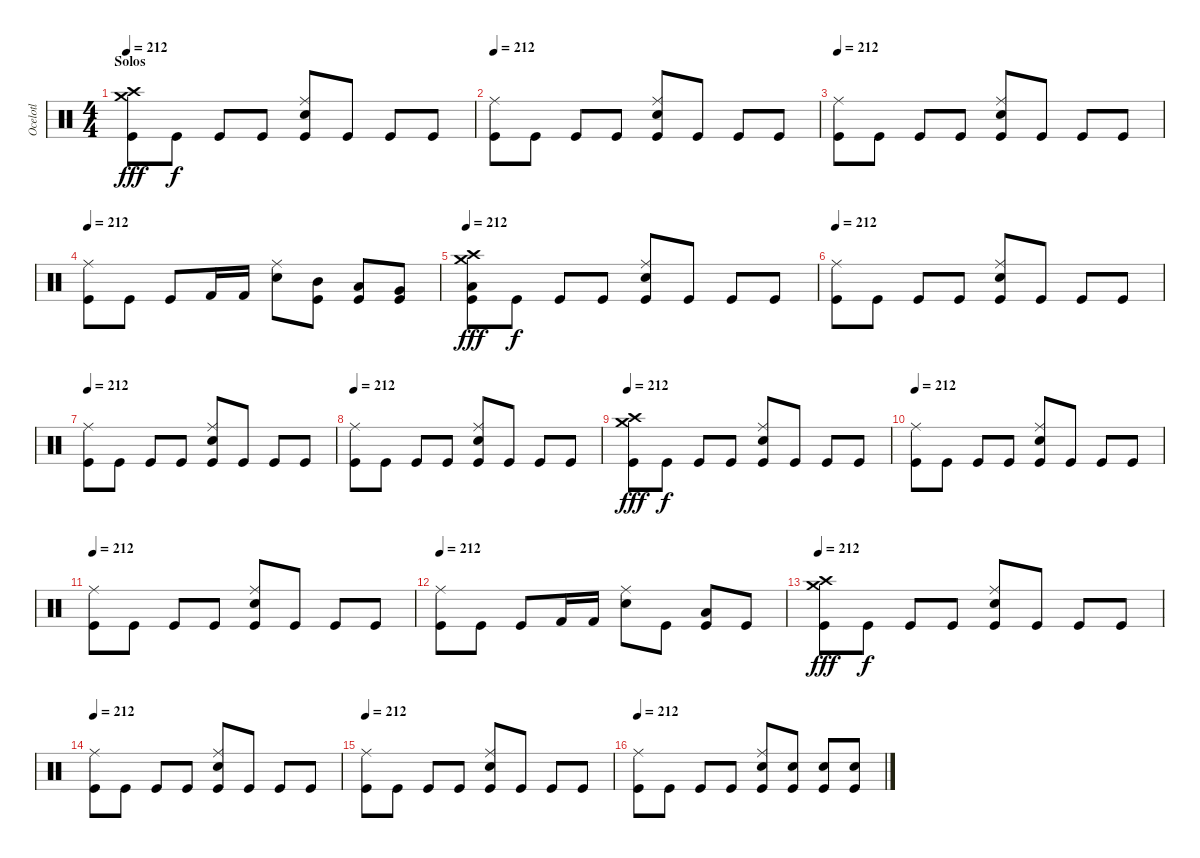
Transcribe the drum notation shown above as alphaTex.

\track ("Ocelotl" "Ocelotl") {instrument percussion}
\staff {score}
\articulation defaults
\ts (4 4)
\section ("" "Solos")
\tempo 212
\clef neutral
\ks c
("Crash medium (hit)" "Kick (hit)" "Crash high (hit)").8{dy fff} "Kick (hit)".8{dy f} "Kick (hit)".8 "Kick (hit)".8 ("Ride (middle)" "Kick (hit)" "Snare (hit) 2").8 "Kick (hit)".8 "Kick (hit)".8 "Kick (hit)".8 |
\tempo 212
("Ride (middle)" "Kick (hit)").8 "Kick (hit)".8 "Kick (hit)".8 "Kick (hit)".8 ("Ride (middle)" "Kick (hit)" "Snare (hit) 2").8 "Kick (hit)".8 "Kick (hit)".8 "Kick (hit)".8 |
\tempo 212
("Ride (middle)" "Kick (hit)").8 "Kick (hit)".8 "Kick (hit)".8 "Kick (hit)".8 ("Ride (middle)" "Kick (hit)" "Snare (hit) 2").8 "Kick (hit)".8 "Kick (hit)".8 "Kick (hit)".8 |
\tempo 212
("Ride (middle)" "Kick (hit)").8 "Kick (hit)".8 "Kick (hit)".8 "Kick (hit) 2".16 "Kick (hit) 2".16 ("Ride (middle)" "Snare (hit) 2").8 ("Kick (hit)" "Mid Tom (hit)").8 ("Kick (hit)" "Low Tom (hit)").8 ("Kick (hit)" "Very Low Tom (hit)").8 |
\tempo 212
("Crash medium (hit)" "Kick (hit)" "Low Floor Tom (hit)" "Crash high (hit)").8{dy fff} "Kick (hit)".8{dy f} "Kick (hit)".8 "Kick (hit)".8 ("Ride (middle)" "Kick (hit)" "Snare (hit) 2").8 "Kick (hit)".8 "Kick (hit)".8 "Kick (hit)".8 |
\tempo 212
("Ride (middle)" "Kick (hit)").8 "Kick (hit)".8 "Kick (hit)".8 "Kick (hit)".8 ("Ride (middle)" "Kick (hit)" "Snare (hit) 2").8 "Kick (hit)".8 "Kick (hit)".8 "Kick (hit)".8 |
\tempo 212
("Ride (middle)" "Kick (hit)").8 "Kick (hit)".8 "Kick (hit)".8 "Kick (hit)".8 ("Ride (middle)" "Kick (hit)" "Snare (hit) 2").8 "Kick (hit)".8 "Kick (hit)".8 "Kick (hit)".8 |
\tempo 212
("Ride (middle)" "Kick (hit)").8 "Kick (hit)".8 "Kick (hit)".8 "Kick (hit)".8 ("Ride (middle)" "Kick (hit)" "Snare (hit) 2").8 "Kick (hit)".8 "Kick (hit)".8 "Kick (hit)".8 |
\tempo 212
("Crash medium (hit)" "Kick (hit)" "Crash high (hit)").8{dy fff} "Kick (hit)".8{dy f} "Kick (hit)".8 "Kick (hit)".8 ("Ride (middle)" "Kick (hit)" "Snare (hit) 2").8 "Kick (hit)".8 "Kick (hit)".8 "Kick (hit)".8 |
\tempo 212
("Ride (middle)" "Kick (hit)").8 "Kick (hit)".8 "Kick (hit)".8 "Kick (hit)".8 ("Ride (middle)" "Kick (hit)" "Snare (hit) 2").8 "Kick (hit)".8 "Kick (hit)".8 "Kick (hit)".8 |
\tempo 212
("Ride (middle)" "Kick (hit)").8 "Kick (hit)".8 "Kick (hit)".8 "Kick (hit)".8 ("Ride (middle)" "Kick (hit)" "Snare (hit) 2").8 "Kick (hit)".8 "Kick (hit)".8 "Kick (hit)".8 |
\tempo 212
("Ride (middle)" "Kick (hit)").8 "Kick (hit)".8 "Kick (hit)".8 "Kick (hit) 2".16 "Kick (hit) 2".16 ("Ride (middle)" "Snare (hit) 2").8 "Kick (hit)".8 ("Kick (hit)" "Low Tom (hit)").8 "Kick (hit)".8 |
\tempo 212
("Crash medium (hit)" "Kick (hit)" "Crash high (hit)").8{dy fff} "Kick (hit)".8{dy f} "Kick (hit)".8 "Kick (hit)".8 ("Ride (middle)" "Kick (hit)" "Snare (hit) 2").8 "Kick (hit)".8 "Kick (hit)".8 "Kick (hit)".8 |
\tempo 212
("Ride (middle)" "Kick (hit)").8 "Kick (hit)".8 "Kick (hit)".8 "Kick (hit)".8 ("Ride (middle)" "Kick (hit)" "Snare (hit) 2").8 "Kick (hit)".8 "Kick (hit)".8 "Kick (hit)".8 |
\tempo 212
("Ride (middle)" "Kick (hit)").8 "Kick (hit)".8 "Kick (hit)".8 "Kick (hit)".8 ("Ride (middle)" "Kick (hit)" "Snare (hit) 2").8 "Kick (hit)".8 "Kick (hit)".8 "Kick (hit)".8 |
\tempo 212
("Ride (middle)" "Kick (hit)").8 "Kick (hit)".8 "Kick (hit)".8 "Kick (hit)".8 ("Ride (middle)" "Kick (hit)" "Snare (hit) 2").8 ("Kick (hit)" "Snare (hit) 2").8 ("Kick (hit)" "Snare (hit) 2").8 ("Kick (hit)" "Snare (hit) 2").8
